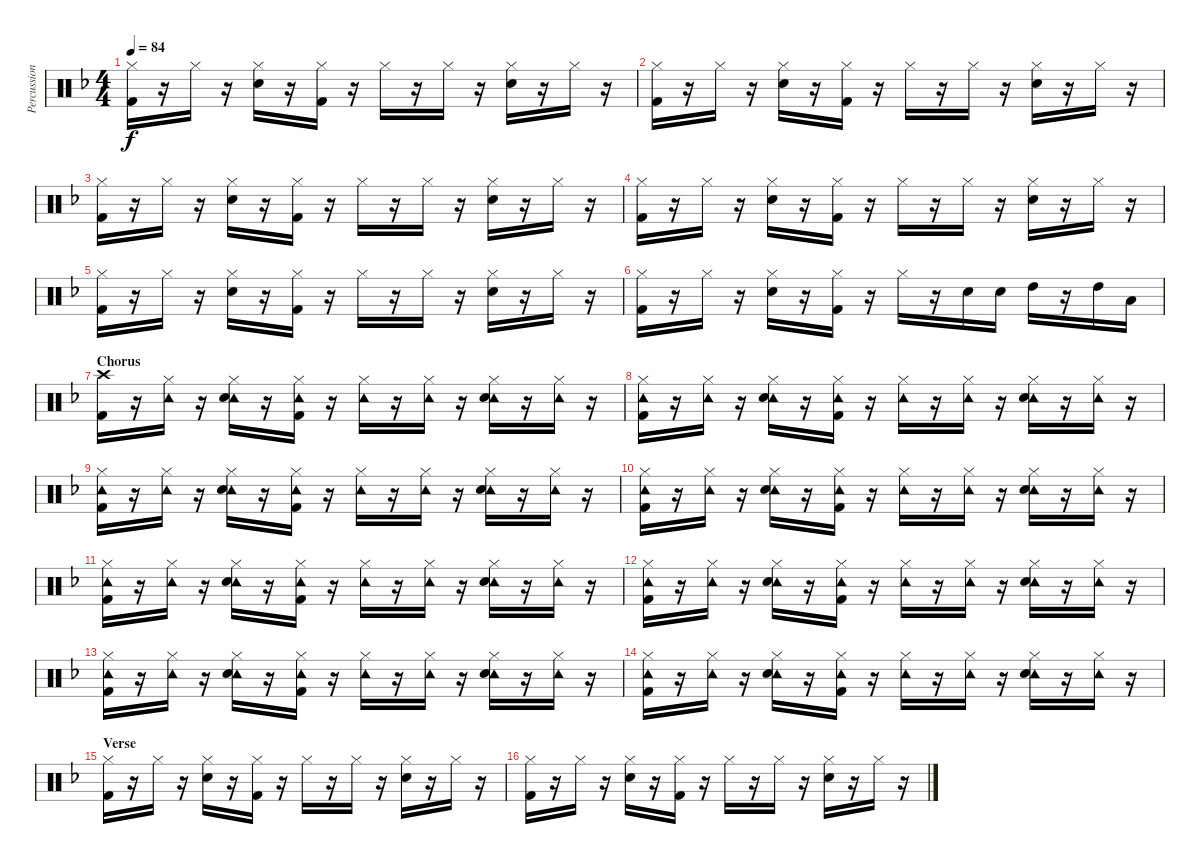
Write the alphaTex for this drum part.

\track ("Percussion" "Percussion") {instrument percussion}
\staff {score}
\articulation defaults
\ts (4 4)
\tempo 84
\clef neutral
\ks f
("Hi-Hat (closed)" "Kick (hit) 2").16{dy f} r.16 "Hi-Hat (closed)".16 r.16 ("Hi-Hat (closed)" "Snare (hit) 2").16 r.16 ("Hi-Hat (closed)" "Kick (hit) 2").16 r.16 "Hi-Hat (closed)".16 r.16 "Hi-Hat (closed)".16 r.16 ("Hi-Hat (closed)" "Snare (hit) 2").16 r.16 "Hi-Hat (closed)".16 r.16 |
("Hi-Hat (closed)" "Kick (hit) 2").16 r.16 "Hi-Hat (closed)".16 r.16 ("Hi-Hat (closed)" "Snare (hit) 2").16 r.16 ("Hi-Hat (closed)" "Kick (hit) 2").16 r.16 "Hi-Hat (closed)".16 r.16 "Hi-Hat (closed)".16 r.16 ("Hi-Hat (closed)" "Snare (hit) 2").16 r.16 "Hi-Hat (closed)".16 r.16 |
("Hi-Hat (closed)" "Kick (hit) 2").16 r.16 "Hi-Hat (closed)".16 r.16 ("Hi-Hat (closed)" "Snare (hit) 2").16 r.16 ("Hi-Hat (closed)" "Kick (hit) 2").16 r.16 "Hi-Hat (closed)".16 r.16 "Hi-Hat (closed)".16 r.16 ("Hi-Hat (closed)" "Snare (hit) 2").16 r.16 "Hi-Hat (closed)".16 r.16 |
("Hi-Hat (closed)" "Kick (hit) 2").16 r.16 "Hi-Hat (closed)".16 r.16 ("Hi-Hat (closed)" "Snare (hit) 2").16 r.16 ("Hi-Hat (closed)" "Kick (hit) 2").16 r.16 "Hi-Hat (closed)".16 r.16 "Hi-Hat (closed)".16 r.16 ("Hi-Hat (closed)" "Snare (hit) 2").16 r.16 "Hi-Hat (closed)".16 r.16 |
("Hi-Hat (closed)" "Kick (hit) 2").16 r.16 "Hi-Hat (closed)".16 r.16 ("Hi-Hat (closed)" "Snare (hit) 2").16 r.16 ("Hi-Hat (closed)" "Kick (hit) 2").16 r.16 "Hi-Hat (closed)".16 r.16 "Hi-Hat (closed)".16 r.16 ("Hi-Hat (closed)" "Snare (hit) 2").16 r.16 "Hi-Hat (closed)".16 r.16 |
("Hi-Hat (closed)" "Kick (hit) 2").16 r.16 "Hi-Hat (closed)".16 r.16 ("Hi-Hat (closed)" "Snare (hit) 2").16 r.16 ("Hi-Hat (closed)" "Kick (hit) 2").16 r.16 "Hi-Hat (closed)".16 r.16 "Snare (hit) 2".16 "Snare (hit) 2".16 "High Tom (hit)".16 r.16 "High Tom (hit)".16 "Low Tom (hit)".16 |
\section ("" "Chorus")
("Crash high (hit)" "Kick (hit) 2").16 r.16 ("Hi-Hat (closed)" "Tambourine (hit)").16 r.16 ("Hi-Hat (closed)" "Tambourine (hit)" "Snare (hit) 2").16 r.16 ("Hi-Hat (closed)" "Tambourine (hit)" "Kick (hit) 2").16 r.16 ("Hi-Hat (closed)" "Tambourine (hit)").16 r.16 ("Hi-Hat (closed)" "Tambourine (hit)").16 r.16 ("Hi-Hat (closed)" "Tambourine (hit)" "Snare (hit) 2").16 r.16 ("Hi-Hat (closed)" "Tambourine (hit)").16 r.16 |
("Hi-Hat (closed)" "Tambourine (hit)" "Kick (hit) 2").16 r.16 ("Hi-Hat (closed)" "Tambourine (hit)").16 r.16 ("Hi-Hat (closed)" "Tambourine (hit)" "Snare (hit) 2").16 r.16 ("Hi-Hat (closed)" "Tambourine (hit)" "Kick (hit) 2").16 r.16 ("Hi-Hat (closed)" "Tambourine (hit)").16 r.16 ("Hi-Hat (closed)" "Tambourine (hit)").16 r.16 ("Hi-Hat (closed)" "Tambourine (hit)" "Snare (hit) 2").16 r.16 ("Hi-Hat (closed)" "Tambourine (hit)").16 r.16 |
("Hi-Hat (closed)" "Tambourine (hit)" "Kick (hit) 2").16 r.16 ("Hi-Hat (closed)" "Tambourine (hit)").16 r.16 ("Hi-Hat (closed)" "Tambourine (hit)" "Snare (hit) 2").16 r.16 ("Hi-Hat (closed)" "Tambourine (hit)" "Kick (hit) 2").16 r.16 ("Hi-Hat (closed)" "Tambourine (hit)").16 r.16 ("Hi-Hat (closed)" "Tambourine (hit)").16 r.16 ("Hi-Hat (closed)" "Tambourine (hit)" "Snare (hit) 2").16 r.16 ("Hi-Hat (closed)" "Tambourine (hit)").16 r.16 |
("Hi-Hat (closed)" "Tambourine (hit)" "Kick (hit) 2").16 r.16 ("Hi-Hat (closed)" "Tambourine (hit)").16 r.16 ("Hi-Hat (closed)" "Tambourine (hit)" "Snare (hit) 2").16 r.16 ("Hi-Hat (closed)" "Tambourine (hit)" "Kick (hit) 2").16 r.16 ("Hi-Hat (closed)" "Tambourine (hit)").16 r.16 ("Hi-Hat (closed)" "Tambourine (hit)").16 r.16 ("Hi-Hat (closed)" "Tambourine (hit)" "Snare (hit) 2").16 r.16 ("Hi-Hat (closed)" "Tambourine (hit)").16 r.16 |
("Hi-Hat (closed)" "Tambourine (hit)" "Kick (hit) 2").16 r.16 ("Hi-Hat (closed)" "Tambourine (hit)").16 r.16 ("Hi-Hat (closed)" "Tambourine (hit)" "Snare (hit) 2").16 r.16 ("Hi-Hat (closed)" "Tambourine (hit)" "Kick (hit) 2").16 r.16 ("Hi-Hat (closed)" "Tambourine (hit)").16 r.16 ("Hi-Hat (closed)" "Tambourine (hit)").16 r.16 ("Hi-Hat (closed)" "Tambourine (hit)" "Snare (hit) 2").16 r.16 ("Hi-Hat (closed)" "Tambourine (hit)").16 r.16 |
("Hi-Hat (closed)" "Tambourine (hit)" "Kick (hit) 2").16 r.16 ("Hi-Hat (closed)" "Tambourine (hit)").16 r.16 ("Hi-Hat (closed)" "Tambourine (hit)" "Snare (hit) 2").16 r.16 ("Hi-Hat (closed)" "Tambourine (hit)" "Kick (hit) 2").16 r.16 ("Hi-Hat (closed)" "Tambourine (hit)").16 r.16 ("Hi-Hat (closed)" "Tambourine (hit)").16 r.16 ("Hi-Hat (closed)" "Tambourine (hit)" "Snare (hit) 2").16 r.16 ("Hi-Hat (closed)" "Tambourine (hit)").16 r.16 |
("Hi-Hat (closed)" "Tambourine (hit)" "Kick (hit) 2").16 r.16 ("Hi-Hat (closed)" "Tambourine (hit)").16 r.16 ("Hi-Hat (closed)" "Tambourine (hit)" "Snare (hit) 2").16 r.16 ("Hi-Hat (closed)" "Tambourine (hit)" "Kick (hit) 2").16 r.16 ("Hi-Hat (closed)" "Tambourine (hit)").16 r.16 ("Hi-Hat (closed)" "Tambourine (hit)").16 r.16 ("Hi-Hat (closed)" "Tambourine (hit)" "Snare (hit) 2").16 r.16 ("Hi-Hat (closed)" "Tambourine (hit)").16 r.16 |
("Hi-Hat (closed)" "Tambourine (hit)" "Kick (hit) 2").16 r.16 ("Hi-Hat (closed)" "Tambourine (hit)").16 r.16 ("Hi-Hat (closed)" "Tambourine (hit)" "Snare (hit) 2").16 r.16 ("Hi-Hat (closed)" "Tambourine (hit)" "Kick (hit) 2").16 r.16 ("Hi-Hat (closed)" "Tambourine (hit)").16 r.16 ("Hi-Hat (closed)" "Tambourine (hit)").16 r.16 ("Hi-Hat (closed)" "Tambourine (hit)" "Snare (hit) 2").16 r.16 ("Hi-Hat (closed)" "Tambourine (hit)").16 r.16 |
\section ("" "Verse")
("Hi-Hat (closed)" "Kick (hit) 2").16 r.16 "Hi-Hat (closed)".16 r.16 ("Hi-Hat (closed)" "Snare (hit) 2").16 r.16 ("Hi-Hat (closed)" "Kick (hit) 2").16 r.16 "Hi-Hat (closed)".16 r.16 "Hi-Hat (closed)".16 r.16 ("Hi-Hat (closed)" "Snare (hit) 2").16 r.16 "Hi-Hat (closed)".16 r.16 |
("Hi-Hat (closed)" "Kick (hit) 2").16 r.16 "Hi-Hat (closed)".16 r.16 ("Hi-Hat (closed)" "Snare (hit) 2").16 r.16 ("Hi-Hat (closed)" "Kick (hit) 2").16 r.16 "Hi-Hat (closed)".16 r.16 "Hi-Hat (closed)".16 r.16 ("Hi-Hat (closed)" "Snare (hit) 2").16 r.16 "Hi-Hat (closed)".16 r.16
